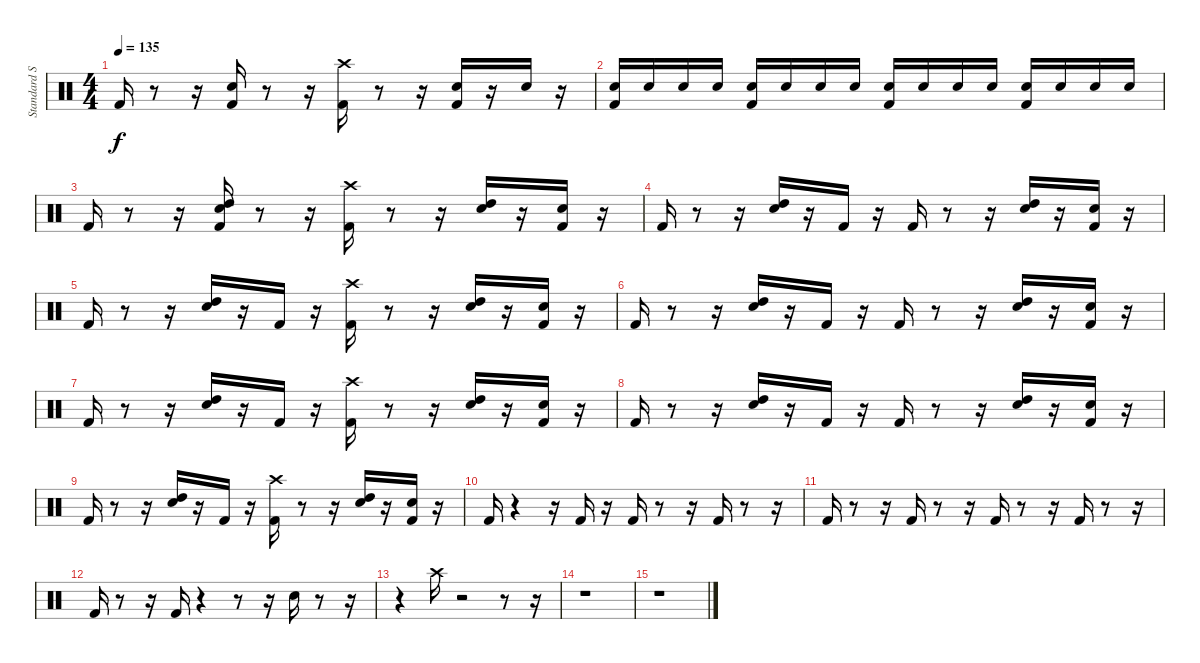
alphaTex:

\track ("Standard Set 1" "Standard S") {instrument percussion}
\staff {score}
\articulation defaults
\ts (4 4)
\tempo 135
\clef neutral
\ks c "Kick (hit) 2".16{dy f}
r.8 r.16 ("Snare (hit) 2" "Kick (hit) 2").16 r.8 r.16 ("Kick (hit) 2" "Crash high (hit)").16 r.8 r.16 ("Snare (hit) 2" "Kick (hit) 2").16 r.16 "Snare (hit) 2".16 r.16 |
("Snare (hit) 2" "Kick (hit) 2").16 "Snare (hit) 2".16 "Snare (hit) 2".16 "Snare (hit) 2".16 ("Snare (hit) 2" "Kick (hit) 2").16 "Snare (hit) 2".16 "Snare (hit) 2".16 "Snare (hit) 2".16 ("Snare (hit) 2" "Kick (hit) 2").16 "Snare (hit) 2".16 "Snare (hit) 2".16 "Snare (hit) 2".16 ("Snare (hit) 2" "Kick (hit) 2").16 "Snare (hit) 2".16 "Snare (hit) 2".16 "Snare (hit) 2".16 |
"Kick (hit) 2".16 r.8 r.16 ("Snare (hit) 2" "High Tom (hit)" "Kick (hit) 2").16 r.8 r.16 ("Kick (hit) 2" "Crash high (hit)").16 r.8 r.16 ("Snare (hit) 2" "High Tom (hit)").16 r.16 ("Snare (hit) 2" "Kick (hit) 2").16 r.16 |
"Kick (hit) 2".16 r.8 r.16 ("Snare (hit) 2" "High Tom (hit)").16 r.16 "Kick (hit) 2".16 r.16 "Kick (hit) 2".16 r.8 r.16 ("Snare (hit) 2" "High Tom (hit)").16 r.16 ("Snare (hit) 2" "Kick (hit) 2").16 r.16 |
"Kick (hit) 2".16 r.8 r.16 ("Snare (hit) 2" "High Tom (hit)").16 r.16 "Kick (hit) 2".16 r.16 ("Kick (hit) 2" "Crash high (hit)").16 r.8 r.16 ("Snare (hit) 2" "High Tom (hit)").16 r.16 ("Snare (hit) 2" "Kick (hit) 2").16 r.16 |
"Kick (hit) 2".16 r.8 r.16 ("Snare (hit) 2" "High Tom (hit)").16 r.16 "Kick (hit) 2".16 r.16 "Kick (hit) 2".16 r.8 r.16 ("Snare (hit) 2" "High Tom (hit)").16 r.16 ("Snare (hit) 2" "Kick (hit) 2").16 r.16 |
"Kick (hit) 2".16 r.8 r.16 ("Snare (hit) 2" "High Tom (hit)").16 r.16 "Kick (hit) 2".16 r.16 ("Kick (hit) 2" "Crash high (hit)").16 r.8 r.16 ("Snare (hit) 2" "High Tom (hit)").16 r.16 ("Snare (hit) 2" "Kick (hit) 2").16 r.16 |
"Kick (hit) 2".16 r.8 r.16 ("Snare (hit) 2" "High Tom (hit)").16 r.16 "Kick (hit) 2".16 r.16 "Kick (hit) 2".16 r.8 r.16 ("Snare (hit) 2" "High Tom (hit)").16 r.16 ("Snare (hit) 2" "Kick (hit) 2").16 r.16 |
"Kick (hit) 2".16 r.8 r.16 ("Snare (hit) 2" "High Tom (hit)").16 r.16 "Kick (hit) 2".16 r.16 ("Kick (hit) 2" "Crash high (hit)").16 r.8 r.16 ("Snare (hit) 2" "High Tom (hit)").16 r.16 ("Snare (hit) 2" "Kick (hit) 2").16 r.16 |
"Kick (hit) 2".16 r.4 r.16 "Kick (hit) 2".16 r.16 "Kick (hit) 2".16 r.8 r.16 "Kick (hit) 2".16 r.8 r.16 |
"Kick (hit) 2".16 r.8 r.16 "Kick (hit) 2".16 r.8 r.16 "Kick (hit) 2".16 r.8 r.16 "Kick (hit) 2".16 r.8 r.16 |
"Kick (hit) 2".16 r.8 r.16 "Kick (hit) 2".16 r.4 r.8 r.16 "Snare (hit) 2".16 r.8 r.16 |
r.4 "Crash high (hit)".16 r.2 r.8 r.16 |
r.1 |
r.1
